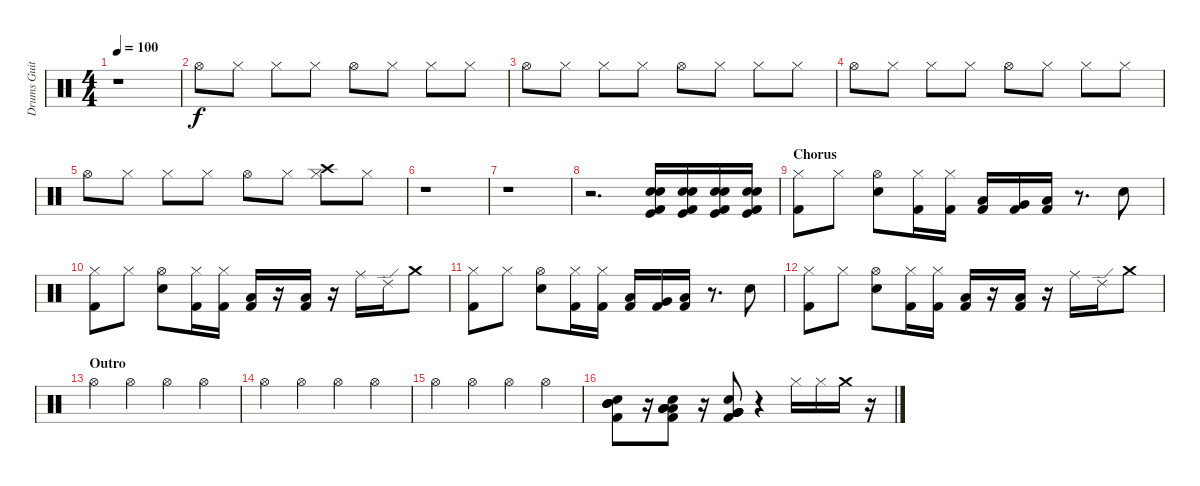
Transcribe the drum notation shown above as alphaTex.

\track ("Drums Guitar" "Drums Guit") {instrument percussion}
\staff {score}
\articulation defaults
\ts (4 4)
\tempo 100
\clef neutral
\ks c
r.1{dy f} |
"Hi-Hat (open)".8 "Hi-Hat (closed)".8 "Hi-Hat (closed)".8 "Hi-Hat (closed)".8 "Hi-Hat (open)".8 "Hi-Hat (closed)".8 "Hi-Hat (closed)".8 "Hi-Hat (closed)".8 |
"Hi-Hat (open)".8 "Hi-Hat (closed)".8 "Hi-Hat (closed)".8 "Hi-Hat (closed)".8 "Hi-Hat (open)".8 "Hi-Hat (closed)".8 "Hi-Hat (closed)".8 "Hi-Hat (closed)".8 |
"Hi-Hat (open)".8 "Hi-Hat (closed)".8 "Hi-Hat (closed)".8 "Hi-Hat (closed)".8 "Hi-Hat (open)".8 "Hi-Hat (closed)".8 "Hi-Hat (closed)".8 "Hi-Hat (closed)".8 |
"Hi-Hat (open)".8 "Hi-Hat (closed)".8 "Hi-Hat (closed)".8 "Hi-Hat (closed)".8 "Hi-Hat (open)".8 "Hi-Hat (closed)".8 ("Crash high (hit)" "Hi-Hat (closed)").8 "Hi-Hat (closed)".8 |
r.1 |
r.1 |
r.2{d} ("Electric Snare (hit)" "Kick (hit)" "Snare (hit) 2" "Kick (hit) 2").16{volume 16} ("Electric Snare (hit)" "Kick (hit)" "Snare (hit) 2" "Kick (hit) 2").16 ("Electric Snare (hit)" "Kick (hit)" "Snare (hit) 2" "Kick (hit) 2").16 ("Electric Snare (hit)" "Kick (hit)" "Snare (hit) 2" "Kick (hit) 2").16 |
\section ("" "Chorus")
("Hi-Hat (closed)" "Kick (hit) 2").8{volume 13} "Hi-Hat (closed)".8 ("Hi-Hat (open)" "Snare (hit) 2").8 ("Hi-Hat (closed)" "Kick (hit) 2").16 ("Hi-Hat (closed)" "Kick (hit) 2").16 ("Low Tom (hit)" "Kick (hit) 2").16 ("Very Low Tom (hit)" "Kick (hit) 2").16 ("Low Tom (hit)" "Kick (hit) 2").16 r.8{d} "Snare (hit) 2".8 |
("Hi-Hat (closed)" "Kick (hit) 2").8 "Hi-Hat (closed)".8 ("Hi-Hat (open)" "Snare (hit) 2").8 ("Hi-Hat (closed)" "Kick (hit) 2").16 ("Hi-Hat (closed)" "Kick (hit) 2").16 ("Low Tom (hit)" "Kick (hit) 2").16 r.16 ("Low Tom (hit)" "Kick (hit) 2").16 r.16 "Ride (middle)".16 "Ride (edge) 2".16 "Crash medium (hit)".8 |
("Hi-Hat (closed)" "Kick (hit) 2").8 "Hi-Hat (closed)".8 ("Hi-Hat (open)" "Snare (hit) 2").8 ("Hi-Hat (closed)" "Kick (hit) 2").16 ("Hi-Hat (closed)" "Kick (hit) 2").16 ("Low Tom (hit)" "Kick (hit) 2").16 ("Very Low Tom (hit)" "Kick (hit) 2").16 ("Low Tom (hit)" "Kick (hit) 2").16 r.8{d} "Snare (hit) 2".8 |
("Hi-Hat (closed)" "Kick (hit) 2").8 "Hi-Hat (closed)".8 ("Hi-Hat (open)" "Snare (hit) 2").8 ("Hi-Hat (closed)" "Kick (hit) 2").16 ("Hi-Hat (closed)" "Kick (hit) 2").16 ("Low Tom (hit)" "Kick (hit) 2").16 r.16 ("Low Tom (hit)" "Kick (hit) 2").16 r.16 "Ride (middle)".16 "Ride (edge) 2".16 "Crash medium (hit)".8 |
\section ("" "Outro")
"Hi-Hat (open)".4 "Hi-Hat (open)".4 "Hi-Hat (open)".4 "Hi-Hat (open)".4 |
"Hi-Hat (open)".4 "Hi-Hat (open)".4 "Hi-Hat (open)".4 "Hi-Hat (open)".4 |
"Hi-Hat (open)".4 "Hi-Hat (open)".4 "Hi-Hat (open)".4 "Hi-Hat (open)".4 |
("Mid Tom (hit)" "Mid Tom (hit)" "Mid Tom (hit)" "Snare (hit) 2" "Kick (hit) 2").8 r.16 ("Low Tom (hit)" "Low Tom (hit)" "Low Tom (hit)" "Snare (hit) 2" "Kick (hit) 2").8 r.16 ("Very Low Tom (hit)" "Very Low Tom (hit)" "Very Low Tom (hit)" "Snare (hit) 2" "Kick (hit) 2").8 r.4 "Hi-Hat (closed)".16 "Hi-Hat (closed)".16 "Crash medium (hit)".16 r.16
